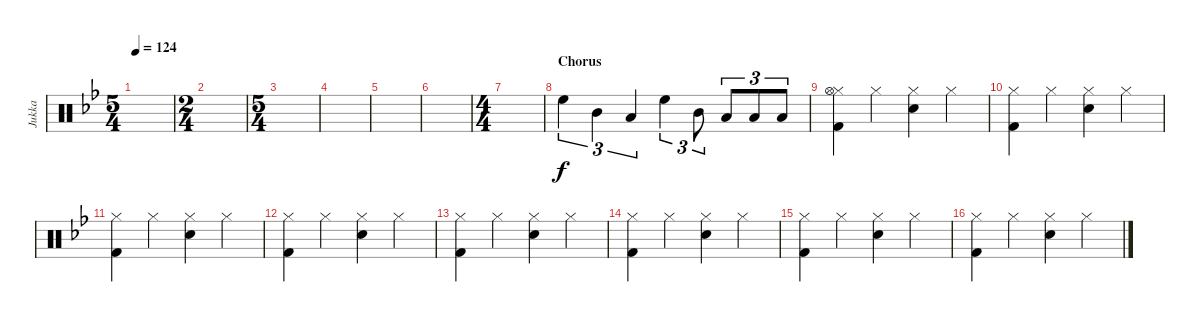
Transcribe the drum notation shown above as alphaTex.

\track ("Jukka" "Jukka") {instrument percussion}
\staff {score}
\articulation defaults
\ts (5 4)
\tempo 124
\clef neutral
\ks bb
|
\ts (2 4)
|
\ts (5 4)
|
|
|
|
\ts (4 4)
|
\section ("" "Chorus")
"High Floor Tom (hit)".4{tu (3 2)} "Mid Tom (hit)".4{tu (3 2)} "Low Tom (hit)".4{tu (3 2)} "High Floor Tom (hit)".4{tu (3 2)} "Mid Tom (hit)".8{tu (3 2)} "Low Tom (hit)".8{tu (3 2)} "Low Tom (hit)".8{tu (3 2)} "Low Floor Tom (hit)".8{tu (3 2)} |
("Hi-Hat (closed)" "Hi-Hat (open)" "Kick (hit) 2").4 "Hi-Hat (closed)".4 ("Hi-Hat (closed)" "Snare (hit) 2").4 "Hi-Hat (closed)".4 |
("Hi-Hat (closed)" "Kick (hit) 2").4 "Hi-Hat (closed)".4 ("Hi-Hat (closed)" "Snare (hit) 2").4 "Hi-Hat (closed)".4 |
("Hi-Hat (closed)" "Kick (hit) 2").4 "Hi-Hat (closed)".4 ("Hi-Hat (closed)" "Snare (hit) 2").4 "Hi-Hat (closed)".4 |
("Hi-Hat (closed)" "Kick (hit) 2").4 "Hi-Hat (closed)".4 ("Hi-Hat (closed)" "Snare (hit) 2").4 "Hi-Hat (closed)".4 |
("Hi-Hat (closed)" "Kick (hit) 2").4 "Hi-Hat (closed)".4 ("Hi-Hat (closed)" "Snare (hit) 2").4 "Hi-Hat (closed)".4 |
("Hi-Hat (closed)" "Kick (hit) 2").4 "Hi-Hat (closed)".4 ("Hi-Hat (closed)" "Snare (hit) 2").4 "Hi-Hat (closed)".4 |
("Hi-Hat (closed)" "Kick (hit) 2").4 "Hi-Hat (closed)".4 ("Hi-Hat (closed)" "Snare (hit) 2").4 "Hi-Hat (closed)".4 |
("Hi-Hat (closed)" "Kick (hit) 2").4 "Hi-Hat (closed)".4 ("Hi-Hat (closed)" "Snare (hit) 2").4 "Hi-Hat (closed)".4
